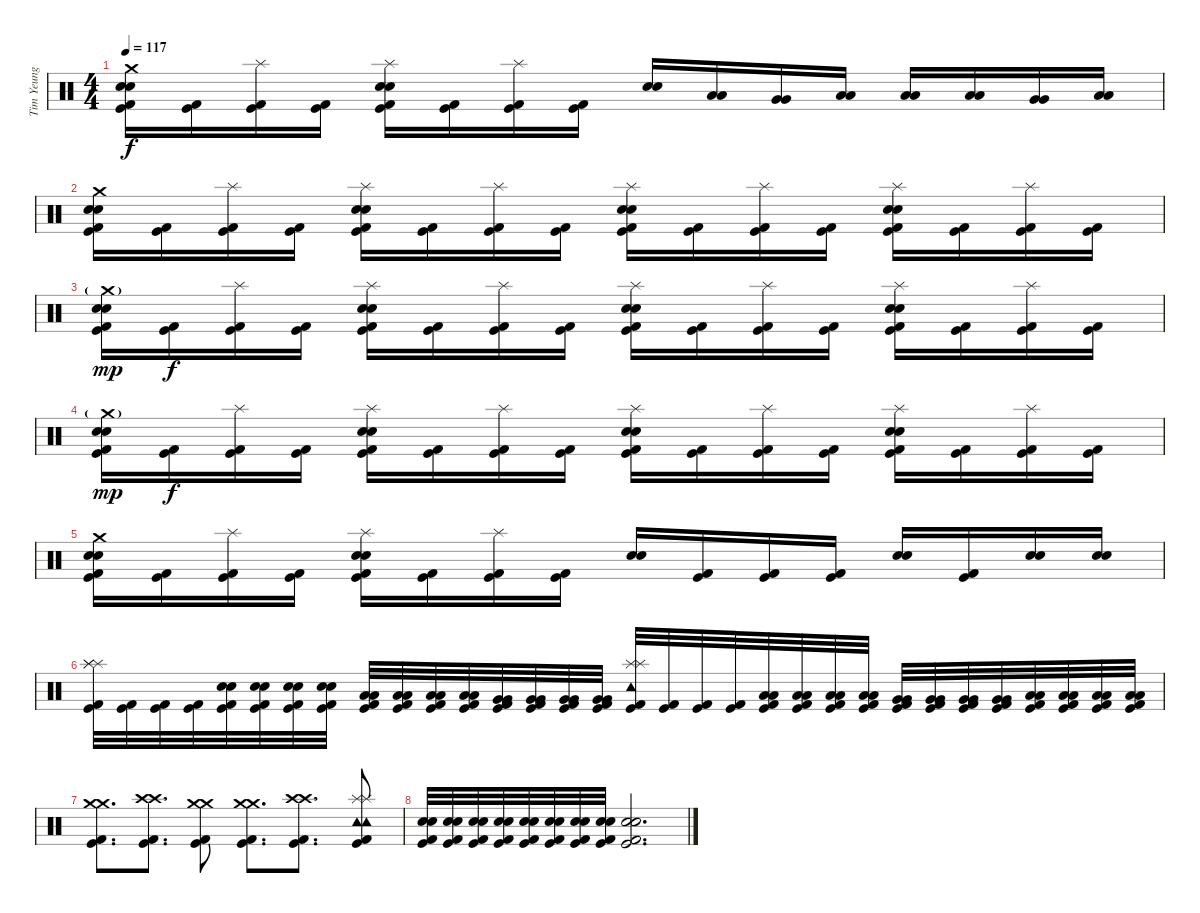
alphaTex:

\track ("Tim Yeung" "Tim Yeung") {instrument percussion}
\staff {score}
\articulation defaults
\ts (4 4)
\tempo 117
\clef neutral
\ks c
("Crash medium (hit)" "Electric Snare (hit)" "Snare (hit) 2" "Kick (hit)" "Kick (hit) 2").16{dy f} ("Kick (hit)" "Kick (hit) 2").16 ("Splash (hit)" "Kick (hit)" "Kick (hit) 2").16 ("Kick (hit)" "Kick (hit) 2").16 ("Splash (hit)" "Electric Snare (hit)" "Snare (hit) 2" "Kick (hit)" "Kick (hit) 2").16 ("Kick (hit)" "Kick (hit) 2").16 ("Splash (hit)" "Kick (hit)" "Kick (hit) 2").16 ("Kick (hit)" "Kick (hit) 2").16 ("Electric Snare (hit)" "Snare (hit) 2").16 ("Low Tom (hit)" "Low Tom (hit)").16 ("Very Low Tom (hit)" "Very Low Tom (hit)").16 ("Low Floor Tom (hit)" "Low Floor Tom (hit)").16 ("Low Tom (hit)" "Low Tom (hit)").16 ("Low Tom (hit)" "Low Tom (hit)").16 ("Very Low Tom (hit)" "Very Low Tom (hit)").16 ("Low Floor Tom (hit)" "Low Floor Tom (hit)").16 |
("Crash medium (hit)" "Electric Snare (hit)" "Snare (hit) 2" "Kick (hit)" "Kick (hit) 2").16 ("Kick (hit)" "Kick (hit) 2").16 ("Splash (hit)" "Kick (hit)" "Kick (hit) 2").16 ("Kick (hit)" "Kick (hit) 2").16 ("Splash (hit)" "Electric Snare (hit)" "Snare (hit) 2" "Kick (hit)" "Kick (hit) 2").16 ("Kick (hit)" "Kick (hit) 2").16 ("Splash (hit)" "Kick (hit)" "Kick (hit) 2").16 ("Kick (hit)" "Kick (hit) 2").16 ("Splash (hit)" "Electric Snare (hit)" "Snare (hit) 2" "Kick (hit)" "Kick (hit) 2").16 ("Kick (hit)" "Kick (hit) 2").16 ("Splash (hit)" "Kick (hit)" "Kick (hit) 2").16 ("Kick (hit)" "Kick (hit) 2").16 ("Splash (hit)" "Electric Snare (hit)" "Snare (hit) 2" "Kick (hit)" "Kick (hit) 2").16 ("Kick (hit)" "Kick (hit) 2").16 ("Splash (hit)" "Kick (hit)" "Kick (hit) 2").16 ("Kick (hit)" "Kick (hit) 2").16 |
("Crash medium (hit)"{g} "Electric Snare (hit)" "Snare (hit) 2" "Kick (hit)" "Kick (hit) 2").16{dy mp} ("Kick (hit)" "Kick (hit) 2").16{dy f} ("Splash (hit)" "Kick (hit)" "Kick (hit) 2").16 ("Kick (hit)" "Kick (hit) 2").16 ("Splash (hit)" "Electric Snare (hit)" "Snare (hit) 2" "Kick (hit)" "Kick (hit) 2").16 ("Kick (hit)" "Kick (hit) 2").16 ("Splash (hit)" "Kick (hit)" "Kick (hit) 2").16 ("Kick (hit)" "Kick (hit) 2").16 ("Splash (hit)" "Electric Snare (hit)" "Snare (hit) 2" "Kick (hit)" "Kick (hit) 2").16 ("Kick (hit)" "Kick (hit) 2").16 ("Splash (hit)" "Kick (hit)" "Kick (hit) 2").16 ("Kick (hit)" "Kick (hit) 2").16 ("Splash (hit)" "Electric Snare (hit)" "Snare (hit) 2" "Kick (hit)" "Kick (hit) 2").16 ("Kick (hit)" "Kick (hit) 2").16 ("Splash (hit)" "Kick (hit)" "Kick (hit) 2").16 ("Kick (hit)" "Kick (hit) 2").16 |
("Crash medium (hit)"{g} "Electric Snare (hit)" "Snare (hit) 2" "Kick (hit)" "Kick (hit) 2").16{dy mp} ("Kick (hit)" "Kick (hit) 2").16{dy f} ("Splash (hit)" "Kick (hit)" "Kick (hit) 2").16 ("Kick (hit)" "Kick (hit) 2").16 ("Splash (hit)" "Electric Snare (hit)" "Snare (hit) 2" "Kick (hit)" "Kick (hit) 2").16 ("Kick (hit)" "Kick (hit) 2").16 ("Splash (hit)" "Kick (hit)" "Kick (hit) 2").16 ("Kick (hit)" "Kick (hit) 2").16 ("Splash (hit)" "Electric Snare (hit)" "Snare (hit) 2" "Kick (hit)" "Kick (hit) 2").16 ("Kick (hit)" "Kick (hit) 2").16 ("Splash (hit)" "Kick (hit)" "Kick (hit) 2").16 ("Kick (hit)" "Kick (hit) 2").16 ("Splash (hit)" "Electric Snare (hit)" "Snare (hit) 2" "Kick (hit)" "Kick (hit) 2").16 ("Kick (hit)" "Kick (hit) 2").16 ("Splash (hit)" "Kick (hit)" "Kick (hit) 2").16 ("Kick (hit)" "Kick (hit) 2").16 |
("Crash medium (hit)" "Electric Snare (hit)" "Snare (hit) 2" "Kick (hit)" "Kick (hit) 2").16 ("Kick (hit)" "Kick (hit) 2").16 ("Splash (hit)" "Kick (hit)" "Kick (hit) 2").16 ("Kick (hit)" "Kick (hit) 2").16 ("Splash (hit)" "Electric Snare (hit)" "Snare (hit) 2" "Kick (hit)" "Kick (hit) 2").16 ("Kick (hit)" "Kick (hit) 2").16 ("Splash (hit)" "Kick (hit)" "Kick (hit) 2").16 ("Kick (hit)" "Kick (hit) 2").16 ("Electric Snare (hit)" "Snare (hit) 2").16 ("Kick (hit)" "Kick (hit) 2").16 ("Kick (hit)" "Kick (hit) 2").16 ("Kick (hit)" "Kick (hit) 2").16 ("Electric Snare (hit)" "Snare (hit) 2").16 ("Kick (hit)" "Kick (hit) 2").16 ("Electric Snare (hit)" "Snare (hit) 2").16 ("Electric Snare (hit)" "Snare (hit) 2").16 |
("Splash (hit)" "Splash (hit)" "Splash (hit)" "Kick (hit)" "Kick (hit) 2").32 ("Kick (hit)" "Kick (hit) 2").32 ("Kick (hit)" "Kick (hit) 2").32 ("Kick (hit)" "Kick (hit) 2").32 ("Electric Snare (hit)" "Snare (hit) 2" "Kick (hit)" "Kick (hit) 2").32 ("Electric Snare (hit)" "Snare (hit) 2" "Kick (hit)" "Kick (hit) 2").32 ("Electric Snare (hit)" "Snare (hit) 2" "Kick (hit)" "Kick (hit) 2").32 ("Electric Snare (hit)" "Snare (hit) 2" "Kick (hit)" "Kick (hit) 2").32 ("Low Tom (hit)" "Low Tom (hit)" "Kick (hit)" "Kick (hit) 2").32 ("Low Tom (hit)" "Low Tom (hit)" "Kick (hit)" "Kick (hit) 2").32 ("Low Tom (hit)" "Low Tom (hit)" "Kick (hit)" "Kick (hit) 2").32 ("Low Tom (hit)" "Low Tom (hit)" "Kick (hit)" "Kick (hit) 2").32 ("Very Low Tom (hit)" "Very Low Tom (hit)" "Kick (hit)" "Kick (hit) 2").32 ("Very Low Tom (hit)" "Very Low Tom (hit)" "Kick (hit)" "Kick (hit) 2").32 ("Very Low Tom (hit)" "Very Low Tom (hit)" "Kick (hit)" "Kick (hit) 2").32 ("Very Low Tom (hit)" "Very Low Tom (hit)" "Kick (hit)" "Kick (hit) 2").32 ("Tambourine (hit)" "Splash (hit)" "Splash (hit)" "Kick (hit)" "Kick (hit) 2").32 ("Kick (hit)" "Kick (hit) 2").32 ("Kick (hit)" "Kick (hit) 2").32 ("Kick (hit)" "Kick (hit) 2").32 ("Low Tom (hit)" "Low Tom (hit)" "Kick (hit)" "Kick (hit) 2").32 ("Low Tom (hit)" "Low Tom (hit)" "Kick (hit)" "Kick (hit) 2").32 ("Low Tom (hit)" "Low Tom (hit)" "Kick (hit)" "Kick (hit) 2").32 ("Low Tom (hit)" "Low Tom (hit)" "Kick (hit)" "Kick (hit) 2").32 ("Very Low Tom (hit)" "Very Low Tom (hit)" "Kick (hit)" "Kick (hit) 2").32 ("Very Low Tom (hit)" "Very Low Tom (hit)" "Kick (hit)" "Kick (hit) 2").32 ("Very Low Tom (hit)" "Very Low Tom (hit)" "Kick (hit)" "Kick (hit) 2").32 ("Very Low Tom (hit)" "Very Low Tom (hit)" "Kick (hit)" "Kick (hit) 2").32 ("Low Floor Tom (hit)" "Low Floor Tom (hit)" "Kick (hit)" "Kick (hit) 2").32 ("Low Floor Tom (hit)" "Low Floor Tom (hit)" "Kick (hit)" "Kick (hit) 2").32 ("Low Floor Tom (hit)" "Low Floor Tom (hit)" "Kick (hit)" "Kick (hit) 2").32 ("Low Floor Tom (hit)" "Low Floor Tom (hit)" "Kick (hit)" "Kick (hit) 2").32 |
("Crash medium (hit)" "Crash medium (hit)" "Kick (hit)" "Kick (hit) 2").8{d} ("Crash high (hit)" "Crash high (hit)" "Kick (hit)" "Kick (hit) 2").8{d} ("Crash medium (hit)" "Crash medium (hit)" "Kick (hit)" "Kick (hit) 2").8 ("Crash medium (hit)" "Crash medium (hit)" "Kick (hit)" "Kick (hit) 2").8{d} ("Crash high (hit)" "Crash high (hit)" "Kick (hit)" "Kick (hit) 2").8{d} ("Tambourine (hit)" "Tambourine (hit)" "Splash (hit)" "Splash (hit)" "Kick (hit)" "Kick (hit) 2").8 |
("Electric Snare (hit)" "Snare (hit) 2" "Kick (hit)" "Kick (hit) 2").32 ("Electric Snare (hit)" "Snare (hit) 2" "Kick (hit)" "Kick (hit) 2").32 ("Electric Snare (hit)" "Snare (hit) 2" "Kick (hit)" "Kick (hit) 2").32 ("Electric Snare (hit)" "Snare (hit) 2" "Kick (hit)" "Kick (hit) 2").32 ("Electric Snare (hit)" "Snare (hit) 2" "Kick (hit)" "Kick (hit) 2").32 ("Electric Snare (hit)" "Snare (hit) 2" "Kick (hit)" "Kick (hit) 2").32 ("Electric Snare (hit)" "Snare (hit) 2" "Kick (hit)" "Kick (hit) 2").32 ("Electric Snare (hit)" "Snare (hit) 2" "Kick (hit)" "Kick (hit) 2").32 ("Electric Snare (hit)" "Snare (hit) 2" "Kick (hit)" "Kick (hit) 2").2{d}
